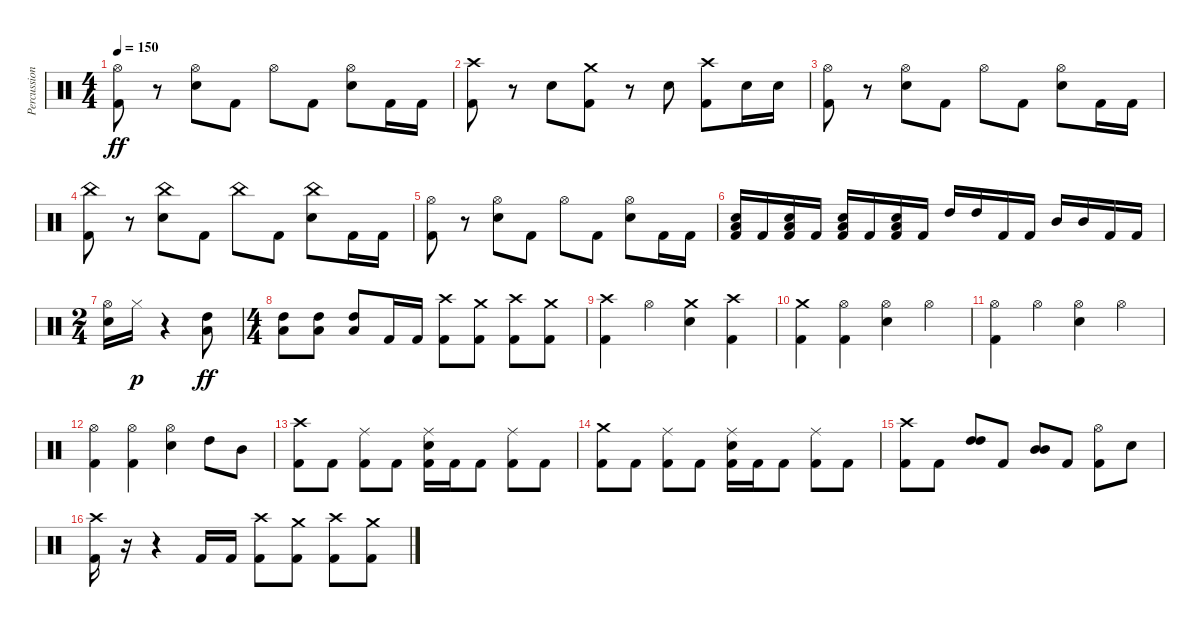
\track ("Percussion" "Percussion") {instrument percussion}
\staff {score}
\articulation defaults
\ts (4 4)
\tempo 150
\clef neutral
\ks c
("Hi-Hat (open)" "Kick (hit) 2").8{dy ff} r.8 ("Hi-Hat (open)" "Snare (hit) 2").8 "Kick (hit) 2".8 "Hi-Hat (open)".8 "Kick (hit) 2".8 ("Hi-Hat (open)" "Snare (hit) 2").8 "Kick (hit) 2".16 "Kick (hit) 2".16 |
("Crash high (hit)" "Kick (hit) 2").8 r.8 "Snare (hit) 2".8 ("Crash medium (hit)" "Kick (hit) 2").8 r.8 "Snare (hit) 2".8 ("Crash high (hit)" "Kick (hit) 2").8 "Snare (hit) 2".16 "Snare (hit) 2".16 |
("Hi-Hat (open)" "Kick (hit) 2").8 r.8 ("Hi-Hat (open)" "Snare (hit) 2").8 "Kick (hit) 2".8 "Hi-Hat (open)".8 "Kick (hit) 2".8 ("Hi-Hat (open)" "Snare (hit) 2").8 "Kick (hit) 2".16 "Kick (hit) 2".16 |
("China (hit)" "Kick (hit) 2").8 r.8 ("China (hit)" "Snare (hit) 2").8 "Kick (hit) 2".8 "China (hit)".8 "Kick (hit) 2".8 ("China (hit)" "Snare (hit) 2").8 "Kick (hit) 2".16 "Kick (hit) 2".16 |
("Hi-Hat (open)" "Kick (hit) 2").8 r.8 ("Hi-Hat (open)" "Snare (hit) 2").8 "Kick (hit) 2".8 "Hi-Hat (open)".8 "Kick (hit) 2".8 ("Hi-Hat (open)" "Snare (hit) 2").8 "Kick (hit) 2".16 "Kick (hit) 2".16 |
("Low Tom (hit)" "Snare (hit) 2" "Kick (hit) 2").16 "Kick (hit) 2".16 ("Low Tom (hit)" "Snare (hit) 2" "Kick (hit) 2").16 "Kick (hit) 2".16 ("Low Tom (hit)" "Snare (hit) 2" "Kick (hit) 2").16 "Kick (hit) 2".16 ("Low Tom (hit)" "Snare (hit) 2" "Kick (hit) 2").16 "Kick (hit) 2".16 "High Tom (hit)".16 "High Tom (hit)".16 "Kick (hit) 2".16 "Kick (hit) 2".16 "Mid Tom (hit)".16 "Mid Tom (hit)".16 "Kick (hit) 2".16 "Kick (hit) 2".16 |
\ts (2 4)
("Hi-Hat (open)" "Snare (hit) 2").16 "Hi-Hat (closed)".16{dy p} r.4 ("High Tom (hit)" "Low Tom (hit)").8{dy ff} |
\ts (4 4)
("High Tom (hit)" "Low Tom (hit)").8 ("High Tom (hit)" "Low Tom (hit)").8 ("High Tom (hit)" "Low Tom (hit)").8 "Kick (hit) 2".16 "Kick (hit) 2".16 ("Crash high (hit)" "Kick (hit) 2").8 ("Crash medium (hit)" "Kick (hit) 2").8 ("Crash high (hit)" "Kick (hit) 2").8 ("Crash medium (hit)" "Kick (hit) 2").8 |
("Crash high (hit)" "Kick (hit) 2").4 "Hi-Hat (open)".4 ("Crash medium (hit)" "Snare (hit) 2").4 ("Crash high (hit)" "Kick (hit) 2").4 |
("Crash medium (hit)" "Kick (hit) 2").4 ("Hi-Hat (open)" "Kick (hit) 2").4 ("Hi-Hat (open)" "Snare (hit) 2").4 "Hi-Hat (open)".4 |
("Hi-Hat (open)" "Kick (hit) 2").4 "Hi-Hat (open)".4 ("Hi-Hat (open)" "Snare (hit) 2").4 "Hi-Hat (open)".4 |
("Hi-Hat (open)" "Kick (hit) 2").4 ("Hi-Hat (open)" "Kick (hit) 2").4 ("Hi-Hat (open)" "Snare (hit) 2").4 "High Tom (hit)".8 "Mid Tom (hit)".8 |
("Crash high (hit)" "Kick (hit) 2").8 "Kick (hit) 2".8 ("Ride (middle)" "Kick (hit) 2").8 "Kick (hit) 2".8 ("Ride (middle)" "Snare (hit) 2" "Kick (hit) 2").16 "Kick (hit) 2".16 "Kick (hit) 2".8 ("Ride (middle)" "Kick (hit) 2").8 "Kick (hit) 2".8 |
("Crash medium (hit)" "Kick (hit) 2").8 "Kick (hit) 2".8 ("Ride (middle)" "Kick (hit) 2").8 "Kick (hit) 2".8 ("Ride (middle)" "Snare (hit) 2" "Kick (hit) 2").16 "Kick (hit) 2".16 "Kick (hit) 2".8 ("Ride (middle)" "Kick (hit) 2").8 "Kick (hit) 2".8 |
("Crash high (hit)" "Kick (hit) 2").8 "Kick (hit) 2".8 ("High Tom (hit)" "High Tom (hit)").8 "Kick (hit) 2".8 ("Mid Tom (hit)" "Mid Tom (hit)").8 "Kick (hit) 2".8 ("Hi-Hat (open)" "Kick (hit) 2").8 "Snare (hit) 2".8 |
("Crash high (hit)" "Kick (hit) 2").16 r.16 r.4 "Kick (hit) 2".16 "Kick (hit) 2".16 ("Crash high (hit)" "Kick (hit) 2").8 ("Crash medium (hit)" "Kick (hit) 2").8 ("Crash high (hit)" "Kick (hit) 2").8 ("Crash medium (hit)" "Kick (hit) 2").8
